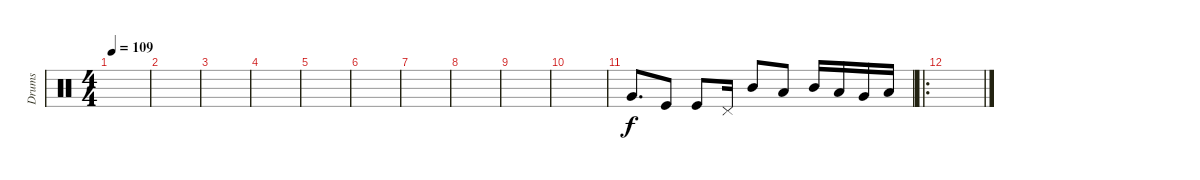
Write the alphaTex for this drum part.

\track ("Drums" "Drums") {instrument percussion}
\staff {score}
\articulation defaults
\ts (4 4)
\tempo 109
\clef neutral
\ks c
|
|
|
|
|
|
|
|
|
|
"Very Low Tom (hit)".8{d} "Kick (hit)".8 "Kick (hit)".8 "Pedal Hi-Hat (hit)".16 "Mid Tom (hit)".8 "Low Tom (hit)".8 "Mid Tom (hit)".16 "Low Tom (hit)".16 "Very Low Tom (hit)".16 "Low Floor Tom (hit)".16 |
\ro
